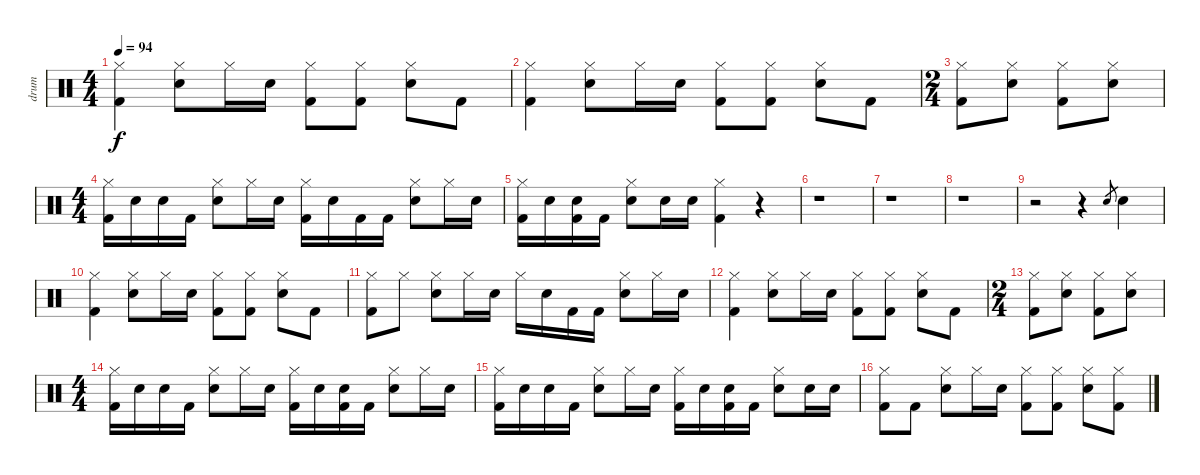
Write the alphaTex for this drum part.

\track ("drum" "drum") {instrument percussion}
\staff {score}
\articulation defaults
\ts (4 4)
\tempo 94
\clef neutral
\ks c
("Hi-Hat (closed)" "Kick (hit) 2").4{dy f} ("Hi-Hat (closed)" "Electric Snare (hit)").8 "Hi-Hat (closed)".16 "Electric Snare (hit)".16 ("Hi-Hat (closed)" "Kick (hit) 2").8 ("Hi-Hat (closed)" "Kick (hit) 2").8 ("Electric Snare (hit)" "Hi-Hat (closed)").8 "Kick (hit) 2".8 |
("Hi-Hat (closed)" "Kick (hit) 2").4 ("Hi-Hat (closed)" "Electric Snare (hit)").8 "Hi-Hat (closed)".16 "Electric Snare (hit)".16 ("Hi-Hat (closed)" "Kick (hit) 2").8 ("Hi-Hat (closed)" "Kick (hit) 2").8 ("Electric Snare (hit)" "Hi-Hat (closed)").8 "Kick (hit) 2".8 |
\ts (2 4)
("Hi-Hat (closed)" "Kick (hit) 2").8 ("Hi-Hat (closed)" "Electric Snare (hit)").8 ("Hi-Hat (closed)" "Kick (hit) 2").8 ("Hi-Hat (closed)" "Electric Snare (hit)").8 |
\ts (4 4)
("Hi-Hat (closed)" "Kick (hit) 2").16 "Electric Snare (hit)".16 "Electric Snare (hit)".16 "Kick (hit) 2".16 ("Hi-Hat (closed)" "Electric Snare (hit)").8 "Hi-Hat (closed)".16 "Electric Snare (hit)".16 ("Hi-Hat (closed)" "Kick (hit) 2").16 "Electric Snare (hit)".16 "Kick (hit) 2".16 "Kick (hit) 2".16 ("Hi-Hat (closed)" "Electric Snare (hit)").8 "Hi-Hat (closed)".16 "Electric Snare (hit)".16 |
("Hi-Hat (closed)" "Kick (hit) 2").16 "Electric Snare (hit)".16 ("Electric Snare (hit)" "Kick (hit) 2").16 "Kick (hit) 2".16 ("Hi-Hat (closed)" "Electric Snare (hit)").8 "Electric Snare (hit)".16 "Electric Snare (hit)".16 ("Hi-Hat (closed)" "Kick (hit) 2").4 r.4 |
r.1 |
r.1 |
r.1 |
r.2 r.4 "Electric Snare (hit)".8{gr} "Electric Snare (hit)".4 |
("Hi-Hat (closed)" "Kick (hit) 2").4 ("Hi-Hat (closed)" "Electric Snare (hit)").8 "Hi-Hat (closed)".16 "Electric Snare (hit)".16 ("Hi-Hat (closed)" "Kick (hit) 2").8 ("Hi-Hat (closed)" "Kick (hit) 2").8 ("Electric Snare (hit)" "Hi-Hat (closed)").8 "Kick (hit) 2".8 |
("Hi-Hat (closed)" "Kick (hit) 2").8 "Hi-Hat (closed)".8 ("Hi-Hat (closed)" "Electric Snare (hit)").8 "Hi-Hat (closed)".16 "Electric Snare (hit)".16 "Hi-Hat (closed)".16 "Electric Snare (hit)".16 "Kick (hit) 2".16 "Kick (hit) 2".16 ("Hi-Hat (closed)" "Electric Snare (hit)").8 "Hi-Hat (closed)".16 "Electric Snare (hit)".16 |
("Hi-Hat (closed)" "Kick (hit) 2").4 ("Hi-Hat (closed)" "Electric Snare (hit)").8 "Hi-Hat (closed)".16 "Electric Snare (hit)".16 ("Hi-Hat (closed)" "Kick (hit) 2").8 ("Hi-Hat (closed)" "Kick (hit) 2").8 ("Electric Snare (hit)" "Hi-Hat (closed)").8 "Kick (hit) 2".8 |
\ts (2 4)
("Hi-Hat (closed)" "Kick (hit) 2").8 ("Hi-Hat (closed)" "Electric Snare (hit)").8 ("Hi-Hat (closed)" "Kick (hit) 2").8 ("Hi-Hat (closed)" "Electric Snare (hit)").8 |
\ts (4 4)
("Hi-Hat (closed)" "Kick (hit) 2").16 "Electric Snare (hit)".16 "Electric Snare (hit)".16 "Kick (hit) 2".16 ("Hi-Hat (closed)" "Electric Snare (hit)").8 "Hi-Hat (closed)".16 "Electric Snare (hit)".16 ("Hi-Hat (closed)" "Kick (hit) 2").16 "Electric Snare (hit)".16 ("Electric Snare (hit)" "Kick (hit) 2").16 "Kick (hit) 2".16 ("Hi-Hat (closed)" "Electric Snare (hit)").8 "Hi-Hat (closed)".16 "Electric Snare (hit)".16 |
("Hi-Hat (closed)" "Kick (hit) 2").16 "Electric Snare (hit)".16 "Electric Snare (hit)".16 "Kick (hit) 2".16 ("Hi-Hat (closed)" "Electric Snare (hit)").8 "Hi-Hat (closed)".16 "Electric Snare (hit)".16 ("Hi-Hat (closed)" "Kick (hit) 2").16 "Electric Snare (hit)".16 ("Electric Snare (hit)" "Kick (hit) 2").16 "Kick (hit) 2".16 ("Hi-Hat (closed)" "Electric Snare (hit)").8 "Electric Snare (hit)".16 "Electric Snare (hit)".16 |
("Hi-Hat (closed)" "Kick (hit) 2").8 "Kick (hit) 2".8 ("Hi-Hat (closed)" "Electric Snare (hit)").8 "Hi-Hat (closed)".16 "Electric Snare (hit)".16 ("Hi-Hat (closed)" "Kick (hit) 2").8 ("Hi-Hat (closed)" "Kick (hit) 2").8 ("Electric Snare (hit)" "Hi-Hat (closed)").8 ("Hi-Hat (closed)" "Kick (hit) 2").8
